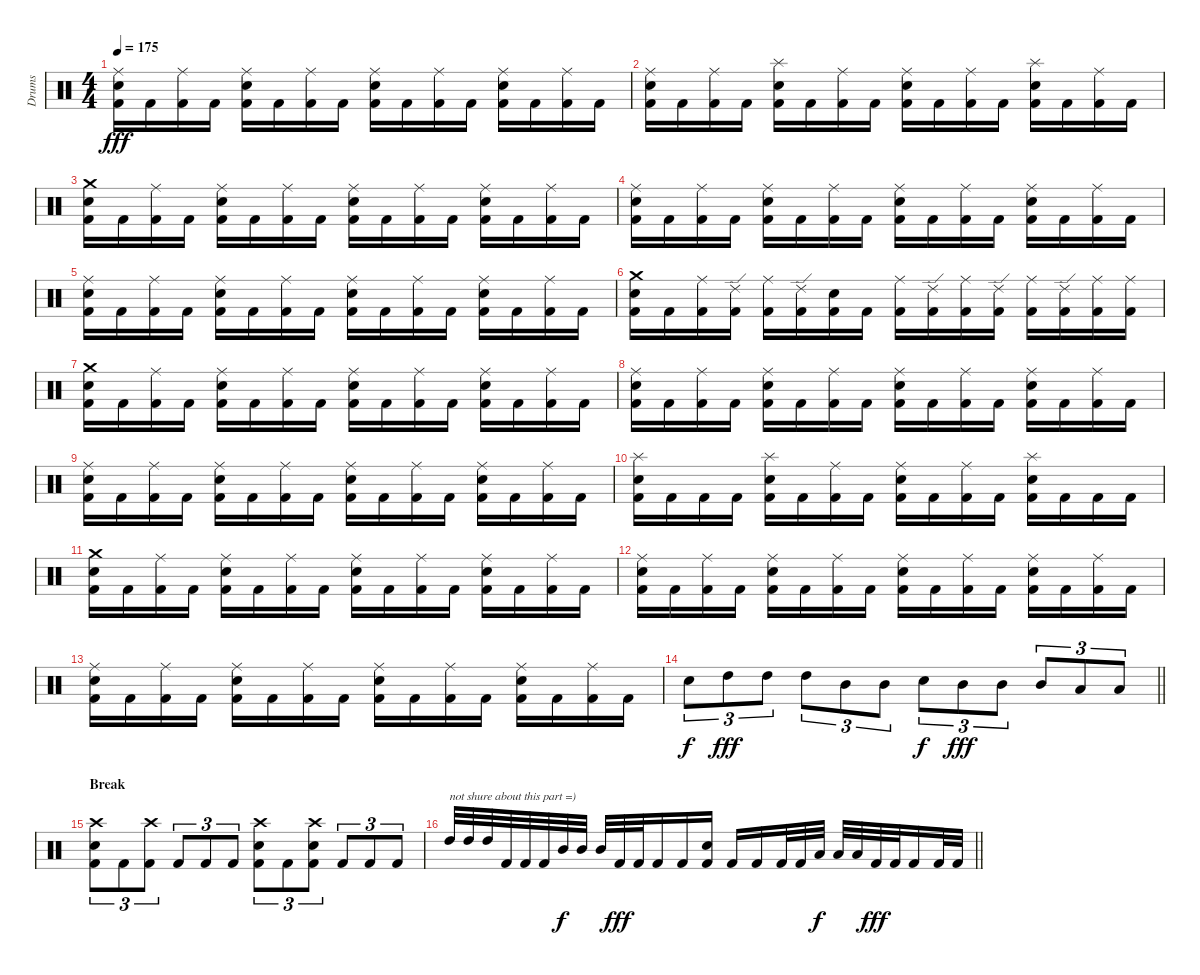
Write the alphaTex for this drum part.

\track ("Drums" "Drums") {instrument percussion}
\staff {score}
\articulation defaults
\ts (4 4)
\tempo 175
\clef neutral
\ks c
("Ride (middle)" "Electric Snare (hit)" "Kick (hit) 2").16{dy fff} "Kick (hit) 2".16 ("Ride (middle)" "Kick (hit) 2").16 "Kick (hit) 2".16 ("Ride (middle)" "Electric Snare (hit)" "Kick (hit) 2").16 "Kick (hit) 2".16 ("Ride (middle)" "Kick (hit) 2").16 "Kick (hit) 2".16 ("Ride (middle)" "Electric Snare (hit)" "Kick (hit) 2").16 "Kick (hit) 2".16 ("Ride (middle)" "Kick (hit) 2").16 "Kick (hit) 2".16 ("Ride (middle)" "Electric Snare (hit)" "Kick (hit) 2").16 "Kick (hit) 2".16 ("Ride (middle)" "Kick (hit) 2").16 "Kick (hit) 2".16 |
("Ride (middle)" "Electric Snare (hit)" "Kick (hit) 2").16 "Kick (hit) 2".16 ("Ride (middle)" "Kick (hit) 2").16 "Kick (hit) 2".16 ("Splash (hit)" "Electric Snare (hit)" "Kick (hit) 2").16 "Kick (hit) 2".16 ("Ride (middle)" "Kick (hit) 2").16 "Kick (hit) 2".16 ("Ride (middle)" "Electric Snare (hit)" "Kick (hit) 2").16 "Kick (hit) 2".16 ("Ride (middle)" "Kick (hit) 2").16 "Kick (hit) 2".16 ("Splash (hit)" "Electric Snare (hit)" "Kick (hit) 2").16 "Kick (hit) 2".16 ("Ride (middle)" "Kick (hit) 2").16 "Kick (hit) 2".16 |
("Crash medium (hit)" "Electric Snare (hit)" "Kick (hit) 2").16 "Kick (hit) 2".16 ("Ride (middle)" "Kick (hit) 2").16 "Kick (hit) 2".16 ("Ride (middle)" "Electric Snare (hit)" "Kick (hit) 2").16 "Kick (hit) 2".16 ("Ride (middle)" "Kick (hit) 2").16 "Kick (hit) 2".16 ("Ride (middle)" "Electric Snare (hit)" "Kick (hit) 2").16 "Kick (hit) 2".16 ("Ride (middle)" "Kick (hit) 2").16 "Kick (hit) 2".16 ("Ride (middle)" "Electric Snare (hit)" "Kick (hit) 2").16 "Kick (hit) 2".16 ("Ride (middle)" "Kick (hit) 2").16 "Kick (hit) 2".16 |
("Ride (middle)" "Electric Snare (hit)" "Kick (hit) 2").16 "Kick (hit) 2".16 ("Ride (middle)" "Kick (hit) 2").16 "Kick (hit) 2".16 ("Ride (middle)" "Electric Snare (hit)" "Kick (hit) 2").16 "Kick (hit) 2".16 ("Ride (middle)" "Kick (hit) 2").16 "Kick (hit) 2".16 ("Ride (middle)" "Electric Snare (hit)" "Kick (hit) 2").16 "Kick (hit) 2".16 ("Ride (middle)" "Kick (hit) 2").16 "Kick (hit) 2".16 ("Ride (middle)" "Electric Snare (hit)" "Kick (hit) 2").16 "Kick (hit) 2".16 ("Ride (middle)" "Kick (hit) 2").16 "Kick (hit) 2".16 |
("Ride (middle)" "Electric Snare (hit)" "Kick (hit) 2").16 "Kick (hit) 2".16 ("Ride (middle)" "Kick (hit) 2").16 "Kick (hit) 2".16 ("Ride (middle)" "Electric Snare (hit)" "Kick (hit) 2").16 "Kick (hit) 2".16 ("Ride (middle)" "Kick (hit) 2").16 "Kick (hit) 2".16 ("Ride (middle)" "Electric Snare (hit)" "Kick (hit) 2").16 "Kick (hit) 2".16 ("Ride (middle)" "Kick (hit) 2").16 "Kick (hit) 2".16 ("Ride (middle)" "Electric Snare (hit)" "Kick (hit) 2").16 "Kick (hit) 2".16 ("Ride (middle)" "Kick (hit) 2").16 "Kick (hit) 2".16 |
("Crash medium (hit)" "Electric Snare (hit)" "Kick (hit) 2").16 "Kick (hit) 2".16 ("Ride (middle)" "Kick (hit) 2").16 ("Ride (edge) 2" "Kick (hit) 2").16 ("Ride (middle)" "Kick (hit) 2").16 ("Ride (edge) 2" "Kick (hit) 2").16 ("Electric Snare (hit)" "Kick (hit) 2").16 "Kick (hit) 2".16 ("Ride (middle)" "Kick (hit) 2").16 ("Ride (edge) 2" "Kick (hit) 2").16 ("Ride (middle)" "Kick (hit) 2").16 ("Ride (edge) 2" "Kick (hit) 2").16 ("Ride (middle)" "Kick (hit) 2").16 ("Ride (edge) 2" "Kick (hit) 2").16 ("Ride (middle)" "Kick (hit) 2").16 ("Ride (middle)" "Kick (hit) 2").16 |
("Crash medium (hit)" "Electric Snare (hit)" "Kick (hit) 2").16 "Kick (hit) 2".16 ("Ride (middle)" "Kick (hit) 2").16 "Kick (hit) 2".16 ("Ride (middle)" "Electric Snare (hit)" "Kick (hit) 2").16 "Kick (hit) 2".16 ("Ride (middle)" "Kick (hit) 2").16 "Kick (hit) 2".16 ("Ride (middle)" "Electric Snare (hit)" "Kick (hit) 2").16 "Kick (hit) 2".16 ("Ride (middle)" "Kick (hit) 2").16 "Kick (hit) 2".16 ("Ride (middle)" "Electric Snare (hit)" "Kick (hit) 2").16 "Kick (hit) 2".16 ("Ride (middle)" "Kick (hit) 2").16 "Kick (hit) 2".16 |
("Ride (middle)" "Electric Snare (hit)" "Kick (hit) 2").16 "Kick (hit) 2".16 ("Ride (middle)" "Kick (hit) 2").16 "Kick (hit) 2".16 ("Ride (middle)" "Electric Snare (hit)" "Kick (hit) 2").16 "Kick (hit) 2".16 ("Ride (middle)" "Kick (hit) 2").16 "Kick (hit) 2".16 ("Ride (middle)" "Electric Snare (hit)" "Kick (hit) 2").16 "Kick (hit) 2".16 ("Ride (middle)" "Kick (hit) 2").16 "Kick (hit) 2".16 ("Ride (middle)" "Electric Snare (hit)" "Kick (hit) 2").16 "Kick (hit) 2".16 ("Ride (middle)" "Kick (hit) 2").16 "Kick (hit) 2".16 |
("Ride (middle)" "Electric Snare (hit)" "Kick (hit) 2").16 "Kick (hit) 2".16 ("Ride (middle)" "Kick (hit) 2").16 "Kick (hit) 2".16 ("Ride (middle)" "Electric Snare (hit)" "Kick (hit) 2").16 "Kick (hit) 2".16 ("Ride (middle)" "Kick (hit) 2").16 "Kick (hit) 2".16 ("Ride (middle)" "Electric Snare (hit)" "Kick (hit) 2").16 "Kick (hit) 2".16 ("Ride (middle)" "Kick (hit) 2").16 "Kick (hit) 2".16 ("Ride (middle)" "Electric Snare (hit)" "Kick (hit) 2").16 "Kick (hit) 2".16 ("Ride (middle)" "Kick (hit) 2").16 "Kick (hit) 2".16 |
("Splash (hit)" "Electric Snare (hit)" "Kick (hit) 2").16 "Kick (hit) 2".16 "Kick (hit) 2".16 "Kick (hit) 2".16 ("Splash (hit)" "Electric Snare (hit)" "Kick (hit) 2").16 "Kick (hit) 2".16 ("Ride (middle)" "Kick (hit) 2").16 "Kick (hit) 2".16 ("Ride (middle)" "Electric Snare (hit)" "Kick (hit) 2").16 "Kick (hit) 2".16 ("Ride (middle)" "Kick (hit) 2").16 "Kick (hit) 2".16 ("Splash (hit)" "Electric Snare (hit)" "Kick (hit) 2").16 "Kick (hit) 2".16 "Kick (hit) 2".16 "Kick (hit) 2".16 |
("Crash medium (hit)" "Electric Snare (hit)" "Kick (hit) 2").16 "Kick (hit) 2".16 ("Ride (middle)" "Kick (hit) 2").16 "Kick (hit) 2".16 ("Ride (middle)" "Electric Snare (hit)" "Kick (hit) 2").16 "Kick (hit) 2".16 ("Ride (middle)" "Kick (hit) 2").16 "Kick (hit) 2".16 ("Ride (middle)" "Electric Snare (hit)" "Kick (hit) 2").16 "Kick (hit) 2".16 ("Ride (middle)" "Kick (hit) 2").16 "Kick (hit) 2".16 ("Ride (middle)" "Electric Snare (hit)" "Kick (hit) 2").16 "Kick (hit) 2".16 ("Ride (middle)" "Kick (hit) 2").16 "Kick (hit) 2".16 |
("Ride (middle)" "Electric Snare (hit)" "Kick (hit) 2").16 "Kick (hit) 2".16 ("Ride (middle)" "Kick (hit) 2").16 "Kick (hit) 2".16 ("Ride (middle)" "Electric Snare (hit)" "Kick (hit) 2").16 "Kick (hit) 2".16 ("Ride (middle)" "Kick (hit) 2").16 "Kick (hit) 2".16 ("Ride (middle)" "Electric Snare (hit)" "Kick (hit) 2").16 "Kick (hit) 2".16 ("Ride (middle)" "Kick (hit) 2").16 "Kick (hit) 2".16 ("Ride (middle)" "Electric Snare (hit)" "Kick (hit) 2").16 "Kick (hit) 2".16 ("Ride (middle)" "Kick (hit) 2").16 "Kick (hit) 2".16 |
("Ride (middle)" "Electric Snare (hit)" "Kick (hit) 2").16 "Kick (hit) 2".16 ("Ride (middle)" "Kick (hit) 2").16 "Kick (hit) 2".16 ("Ride (middle)" "Electric Snare (hit)" "Kick (hit) 2").16 "Kick (hit) 2".16 ("Ride (middle)" "Kick (hit) 2").16 "Kick (hit) 2".16 ("Ride (middle)" "Electric Snare (hit)" "Kick (hit) 2").16 "Kick (hit) 2".16 ("Ride (middle)" "Kick (hit) 2").16 "Kick (hit) 2".16 ("Ride (middle)" "Electric Snare (hit)" "Kick (hit) 2").16 "Kick (hit) 2".16 ("Ride (middle)" "Kick (hit) 2").16 "Kick (hit) 2".16 |
\barLineRight lightlight "Electric Snare (hit)".8{tu (3 2) dy f} "High Tom (hit)".8{tu (3 2) dy fff} "High Tom (hit)".8{tu (3 2)} "High Tom (hit)".8{tu (3 2)} "Mid Tom (hit)".8{tu (3 2)} "Mid Tom (hit)".8{tu (3 2)} "Electric Snare (hit)".8{tu (3 2) dy f} "Mid Tom (hit)".8{tu (3 2) dy fff} "Mid Tom (hit)".8{tu (3 2)} "Mid Tom (hit)".8{tu (3 2)} "Low Tom (hit)".8{tu (3 2)} "Low Tom (hit)".8{tu (3 2)}
|
\section ("" "Break")
("Crash high (hit)" "Electric Snare (hit)" "Kick (hit) 2").8{tu (3 2)} "Kick (hit) 2".8{tu (3 2)} ("Crash high (hit)" "Kick (hit) 2").8{tu (3 2)} "Kick (hit) 2".8{tu (3 2)} "Kick (hit) 2".8{tu (3 2)} "Kick (hit) 2".8{tu (3 2)} ("Crash high (hit)" "Electric Snare (hit)" "Kick (hit) 2").8{tu (3 2)} "Kick (hit) 2".8{tu (3 2)} ("Crash high (hit)" "Electric Snare (hit)" "Kick (hit) 2").8{tu (3 2)} "Kick (hit) 2".8{tu (3 2)} "Kick (hit) 2".8{tu (3 2)} "Kick (hit) 2".8{tu (3 2)} |
\barLineRight lightlight "High Tom (hit)".32{txt "not shure about this part =)"} "High Tom (hit)".32 "High Tom (hit)".32 "Kick (hit) 2".32 "Kick (hit) 2".32 "Kick (hit) 2".32 "Mid Tom (hit)".32{dy f} "Mid Tom (hit)".32 "Mid Tom (hit)".32 "Kick (hit) 2".32{dy fff} "Kick (hit) 2".32 "Kick (hit) 2".16 "Kick (hit) 2".16
("Electric Snare (hit)" "Kick (hit) 2").16 "Kick (hit) 2".16 "Kick (hit) 2".16 "Kick (hit) 2".32 "Kick (hit) 2".32 "Low Tom (hit)".32{dy f} "Low Tom (hit)".32 "Low Tom (hit)".32 "Kick (hit) 2".32{dy fff} "Kick (hit) 2".32 "Kick (hit) 2".16 "Kick (hit) 2".32 "Kick (hit) 2".32
